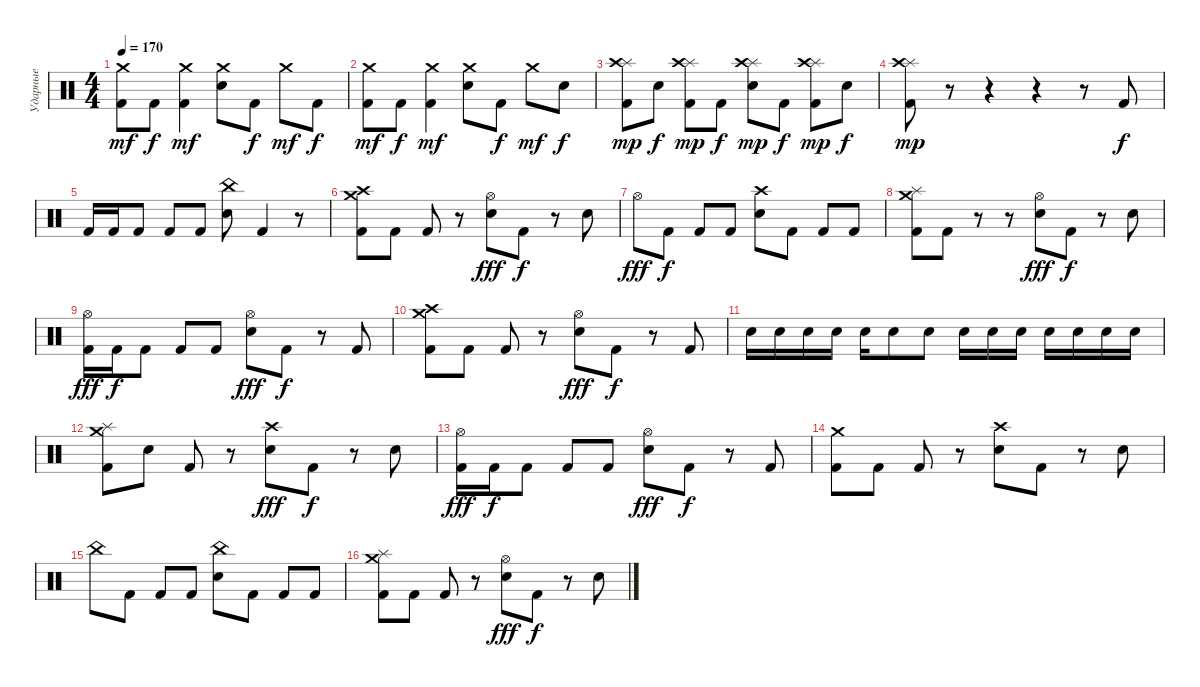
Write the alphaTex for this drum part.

\track ("Ударные" "Ударные") {instrument percussion}
\staff {score}
\articulation defaults
\ts (4 4)
\tempo 170
\clef neutral
\ks c
("Crash medium (hit)" "Kick (hit) 2").8{dy mf} "Kick (hit) 2".8{dy f} ("Crash medium (hit)" "Kick (hit) 2").4{dy mf} ("Crash medium (hit)" "Electric Snare (hit)").8 "Kick (hit) 2".8{dy f} "Crash medium (hit)".8{dy mf} "Kick (hit) 2".8{dy f} |
("Crash medium (hit)" "Kick (hit) 2").8{dy mf} "Kick (hit) 2".8{dy f} ("Crash medium (hit)" "Kick (hit) 2").4{dy mf} ("Crash medium (hit)" "Electric Snare (hit)").8 "Kick (hit) 2".8{dy f} "Crash medium (hit)".8{dy mf} "Electric Snare (hit)".8{dy f} |
("Splash (hit)" "Crash high (hit)" "Kick (hit) 2").8{dy mp} "Electric Snare (hit)".8{dy f} ("Splash (hit)" "Crash high (hit)" "Kick (hit) 2").8{dy mp} "Kick (hit) 2".8{dy f} ("Splash (hit)" "Crash high (hit)" "Electric Snare (hit)").8{dy mp} "Kick (hit) 2".8{dy f} ("Splash (hit)" "Crash high (hit)" "Kick (hit) 2").8{dy mp} "Electric Snare (hit)".8{dy f} |
("Splash (hit)" "Crash high (hit)" "Kick (hit) 2").8{dy mp} r.8 r.4 r.4 r.8 "Kick (hit) 2".8{dy f} |
"Kick (hit) 2".16 "Kick (hit) 2".16 "Kick (hit) 2".8 "Kick (hit) 2".8 "Kick (hit) 2".8 ("China (hit)" "Electric Snare (hit)").8 "Kick (hit) 2".4 r.8 |
("Crash medium (hit)" "Crash high (hit)" "Kick (hit) 2").8 "Kick (hit) 2".8 "Kick (hit) 2".8 r.8 ("Hi-Hat (open)" "Electric Snare (hit)").8{dy fff} "Kick (hit) 2".8{dy f} r.8 "Electric Snare (hit)".8 |
"Hi-Hat (open)".8{dy fff} "Kick (hit) 2".8{dy f} "Kick (hit) 2".8 "Kick (hit) 2".8 ("Crash high (hit)" "Electric Snare (hit)").8 "Kick (hit) 2".8 "Kick (hit) 2".8 "Kick (hit) 2".8 |
("Crash medium (hit)" "Splash (hit)" "Kick (hit) 2").8 "Kick (hit) 2".8 r.8 r.8 ("Hi-Hat (open)" "Electric Snare (hit)").8{dy fff} "Kick (hit) 2".8{dy f} r.8 "Electric Snare (hit)".8 |
("Hi-Hat (open)" "Kick (hit) 2").16{dy fff} "Kick (hit) 2".16{dy f} "Kick (hit) 2".8 "Kick (hit) 2".8 "Kick (hit) 2".8 ("Hi-Hat (open)" "Electric Snare (hit)").8{dy fff} "Kick (hit) 2".8{dy f} r.8 "Kick (hit) 2".8 |
("Crash medium (hit)" "Crash high (hit)" "Kick (hit) 2").8 "Kick (hit) 2".8 "Kick (hit) 2".8 r.8 ("Hi-Hat (open)" "Electric Snare (hit)").8{dy fff} "Kick (hit) 2".8{dy f} r.8 "Kick (hit) 2".8 |
"Electric Snare (hit)".16 "Electric Snare (hit)".16 "Electric Snare (hit)".16 "Electric Snare (hit)".16 "Electric Snare (hit)".16 "Electric Snare (hit)".8 "Electric Snare (hit)".8 "Electric Snare (hit)".16 "Electric Snare (hit)".16 "Electric Snare (hit)".16 "Electric Snare (hit)".16 "Electric Snare (hit)".16 "Electric Snare (hit)".16 "Electric Snare (hit)".16 |
("Crash medium (hit)" "Splash (hit)" "Kick (hit) 2").8 "Electric Snare (hit)".8 "Kick (hit) 2".8 r.8 ("Crash high (hit)" "Electric Snare (hit)").8{dy fff} "Kick (hit) 2".8{dy f} r.8 "Electric Snare (hit)".8 |
("Hi-Hat (open)" "Kick (hit) 2").16{dy fff} "Kick (hit) 2".16{dy f} "Kick (hit) 2".8 "Kick (hit) 2".8 "Kick (hit) 2".8 ("Hi-Hat (open)" "Electric Snare (hit)").8{dy fff} "Kick (hit) 2".8{dy f} r.8 "Kick (hit) 2".8 |
("Crash medium (hit)" "Kick (hit) 2").8 "Kick (hit) 2".8 "Kick (hit) 2".8 r.8 ("Crash high (hit)" "Electric Snare (hit)").8 "Kick (hit) 2".8 r.8 "Electric Snare (hit)".8 |
"China (hit)".8 "Kick (hit) 2".8 "Kick (hit) 2".8 "Kick (hit) 2".8 ("China (hit)" "Electric Snare (hit)").8 "Kick (hit) 2".8 "Kick (hit) 2".8 "Kick (hit) 2".8 |
("Crash medium (hit)" "Splash (hit)" "Kick (hit) 2").8 "Kick (hit) 2".8 "Kick (hit) 2".8 r.8 ("Hi-Hat (open)" "Electric Snare (hit)").8{dy fff} "Kick (hit) 2".8{dy f} r.8 "Electric Snare (hit)".8
